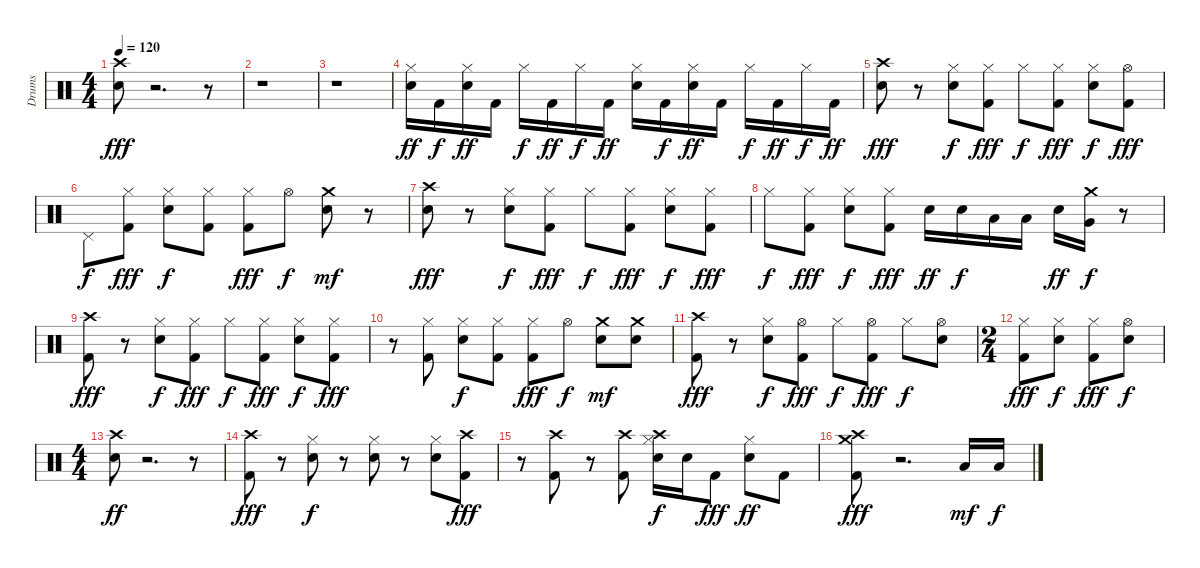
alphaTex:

\track ("Drums" "Drums") {instrument percussion}
\staff {score}
\articulation defaults
\ts (4 4)
\tempo 120
\clef neutral
\ks c
("Snare (hit) 2" "Crash high (hit)").8{dy fff} r.2{d} r.8 |
r.1 |
r.1 |
("Snare (hit) 2" "Hi-Hat (closed)").16{dy ff} "Kick (hit) 2".16{dy f} ("Snare (hit) 2" "Hi-Hat (closed)").16{dy ff} "Kick (hit) 2".16 "Hi-Hat (closed)".16{dy f} "Kick (hit) 2".16{dy ff} "Hi-Hat (closed)".16{dy f} "Kick (hit) 2".16{dy ff} ("Snare (hit) 2" "Hi-Hat (closed)").16 "Kick (hit) 2".16{dy f} ("Snare (hit) 2" "Hi-Hat (closed)").16{dy ff} "Kick (hit) 2".16 "Hi-Hat (closed)".16{dy f} "Kick (hit) 2".16{dy ff} "Hi-Hat (closed)".16{dy f} "Kick (hit) 2".16{dy ff} |
("Snare (hit) 2" "Crash high (hit)").8{dy fff} r.8 ("Snare (hit) 2" "Hi-Hat (closed)").8{dy f} ("Kick (hit) 2" "Hi-Hat (closed)").8{dy fff} "Hi-Hat (closed)".8{dy f} ("Kick (hit) 2" "Hi-Hat (closed)").8{dy fff} ("Snare (hit) 2" "Hi-Hat (closed)").8{dy f} ("Kick (hit) 2" "Hi-Hat (open)").8{dy fff} |
"Pedal Hi-Hat (hit)".8{dy f} ("Kick (hit) 2" "Hi-Hat (closed)").8{dy fff} ("Snare (hit) 2" "Hi-Hat (closed)").8{dy f} ("Kick (hit) 2" "Hi-Hat (closed)").8 ("Kick (hit) 2" "Hi-Hat (closed)").8{dy fff} "Hi-Hat (open)".8{dy f} ("Snare (hit) 2" "Crash medium (hit)").8{dy mf} r.8 |
("Snare (hit) 2" "Crash high (hit)").8{dy fff} r.8 ("Snare (hit) 2" "Hi-Hat (closed)").8{dy f} ("Kick (hit) 2" "Hi-Hat (closed)").8{dy fff} "Hi-Hat (closed)".8{dy f} ("Kick (hit) 2" "Hi-Hat (closed)").8{dy fff} ("Snare (hit) 2" "Hi-Hat (closed)").8{dy f} ("Kick (hit) 2" "Hi-Hat (closed)").8{dy fff} |
"Hi-Hat (closed)".8{dy f} ("Kick (hit) 2" "Hi-Hat (closed)").8{dy fff} ("Snare (hit) 2" "Hi-Hat (closed)").8{dy f} ("Kick (hit) 2" "Hi-Hat (closed)").8{dy fff} "Snare (hit) 2".16{dy ff} "Snare (hit) 2".16{dy f} "Low Tom (hit)".16 "Low Tom (hit)".16 "Snare (hit) 2".16{dy ff} ("Very Low Tom (hit)" "Crash medium (hit)").16{dy f} r.8 |
("Kick (hit) 2" "Crash high (hit)").8{dy fff} r.8 ("Snare (hit) 2" "Hi-Hat (closed)").8{dy f} ("Kick (hit) 2" "Hi-Hat (closed)").8{dy fff} "Hi-Hat (closed)".8{dy f} ("Kick (hit) 2" "Hi-Hat (closed)").8{dy fff} ("Snare (hit) 2" "Hi-Hat (closed)").8{dy f} ("Kick (hit) 2" "Hi-Hat (closed)").8{dy fff} |
r.8 ("Kick (hit) 2" "Hi-Hat (closed)").8 ("Snare (hit) 2" "Hi-Hat (closed)").8{dy f} ("Kick (hit) 2" "Hi-Hat (closed)").8 ("Kick (hit) 2" "Hi-Hat (closed)").8{dy fff} "Hi-Hat (open)".8{dy f} ("Snare (hit) 2" "Crash medium (hit)").8{dy mf} ("Snare (hit) 2" "Crash medium (hit)").8 |
("Kick (hit) 2" "Crash high (hit)").8{dy fff} r.8 ("Snare (hit) 2" "Hi-Hat (closed)").8{dy f} ("Kick (hit) 2" "Hi-Hat (open)").8{dy fff} "Hi-Hat (closed)".8{dy f} ("Kick (hit) 2" "Hi-Hat (open)").8{dy fff} "Hi-Hat (closed)".8{dy f} ("Snare (hit) 2" "Hi-Hat (open)").8 |
\ts (2 4)
("Kick (hit) 2" "Hi-Hat (closed)").8{dy fff} ("Snare (hit) 2" "Hi-Hat (closed)").8{dy f} ("Kick (hit) 2" "Hi-Hat (closed)").8{dy fff} ("Snare (hit) 2" "Hi-Hat (open)").8{dy f} |
\ts (4 4)
("Snare (hit) 2" "Crash high (hit)").8{dy ff} r.2{d} r.8 |
("Kick (hit) 2" "Crash high (hit)").8{dy fff} r.8 ("Snare (hit) 2" "Hi-Hat (closed)").8{dy f} r.8 ("Snare (hit) 2" "Hi-Hat (closed)").8 r.8 ("Snare (hit) 2" "Hi-Hat (closed)").8 ("Kick (hit) 2" "Crash high (hit)").8{dy fff} |
r.8 ("Kick (hit) 2" "Crash high (hit)").8 r.8 ("Kick (hit) 2" "Crash high (hit)").8 ("Snare (hit) 2" "Hi-Hat (closed)" "Crash high (hit)").16{dy f} "Snare (hit) 2".16 "Kick (hit) 2".8{dy fff} ("Snare (hit) 2" "Hi-Hat (closed)").8{dy ff} "Kick (hit) 2".8 |
("Kick (hit) 2" "Crash high (hit)" "Crash medium (hit)").8{dy fff} r.2{d} "Low Floor Tom (hit)".16{dy mf} "Low Floor Tom (hit)".16{dy f}
